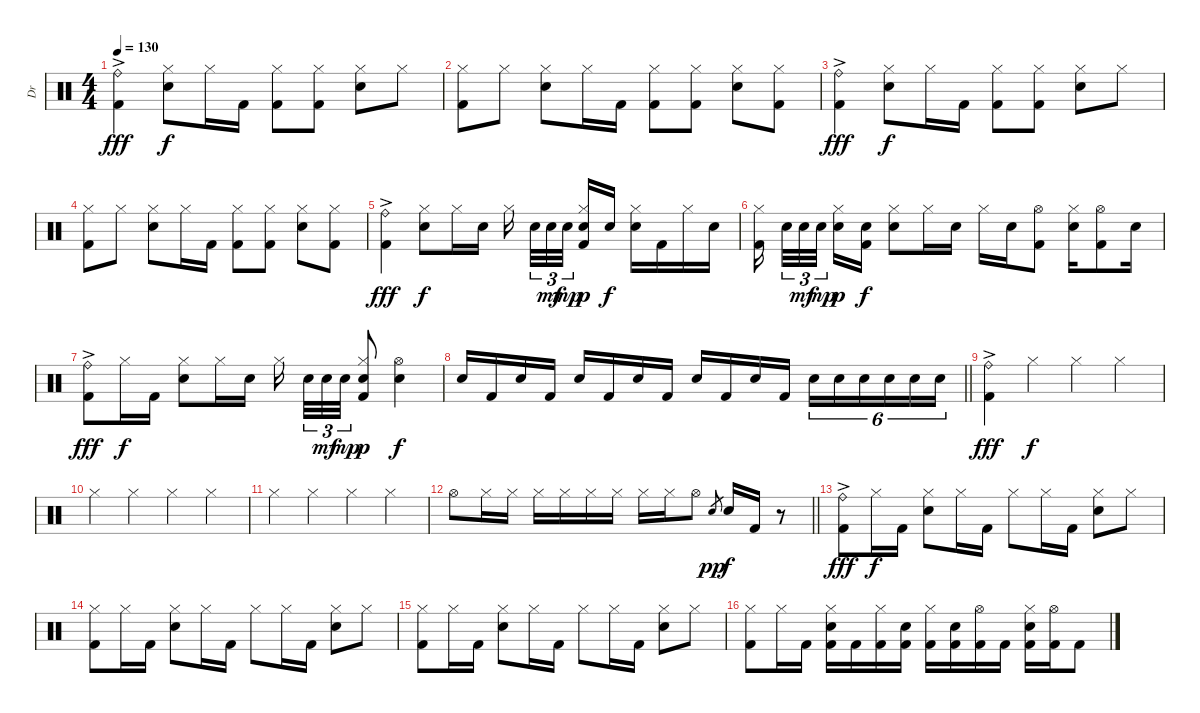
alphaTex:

\track ("Dr" "Dr") {instrument percussion}
\staff {score}
\articulation defaults
\ts (4 4)
\tempo 130
\clef neutral
\ks c
("Ride (bell)"{ac} "Kick (hit) 2"{ac}).4{dy fff} ("Hi-Hat (closed)" "Electric Snare (hit)").8{dy f} "Hi-Hat (closed)".16 "Kick (hit) 2".16 ("Hi-Hat (closed)" "Kick (hit) 2").8 ("Hi-Hat (closed)" "Kick (hit) 2").8 ("Hi-Hat (closed)" "Electric Snare (hit)").8 "Hi-Hat (closed)".8 |
("Hi-Hat (closed)" "Kick (hit) 2").8 "Hi-Hat (closed)".8 ("Hi-Hat (closed)" "Electric Snare (hit)").8 "Hi-Hat (closed)".16 "Kick (hit) 2".16 ("Hi-Hat (closed)" "Kick (hit) 2").8 ("Hi-Hat (closed)" "Kick (hit) 2").8 ("Hi-Hat (closed)" "Electric Snare (hit)").8 ("Hi-Hat (closed)" "Kick (hit) 2").8 |
("Ride (bell)"{ac} "Kick (hit) 2"{ac}).4{dy fff} ("Hi-Hat (closed)" "Electric Snare (hit)").8{dy f} "Hi-Hat (closed)".16 "Kick (hit) 2".16 ("Hi-Hat (closed)" "Kick (hit) 2").8 ("Hi-Hat (closed)" "Kick (hit) 2").8 ("Hi-Hat (closed)" "Electric Snare (hit)").8 "Hi-Hat (closed)".8 |
("Hi-Hat (closed)" "Kick (hit) 2").8 "Hi-Hat (closed)".8 ("Hi-Hat (closed)" "Electric Snare (hit)").8 "Hi-Hat (closed)".16 "Kick (hit) 2".16 ("Hi-Hat (closed)" "Kick (hit) 2").8 ("Hi-Hat (closed)" "Kick (hit) 2").8 ("Hi-Hat (closed)" "Electric Snare (hit)").8 ("Hi-Hat (closed)" "Kick (hit) 2").8 |
("Ride (bell)"{ac} "Kick (hit) 2"{ac}).4{dy fff} ("Hi-Hat (closed)" "Electric Snare (hit)").8{dy f} "Hi-Hat (closed)".16 "Electric Snare (hit)".16 "Hi-Hat (closed)".16 "Electric Snare (hit)".32{tu (3 2)} "Electric Snare (hit)".32{tu (3 2) dy mf} "Electric Snare (hit)".32{tu (3 2) dy mp} ("Hi-Hat (closed)" "Electric Snare (hit)" "Kick (hit) 2").16{dy p} "Electric Snare (hit)".16{dy f} ("Hi-Hat (closed)" "Electric Snare (hit)").16 "Kick (hit) 2".16 "Hi-Hat (closed)".16 "Electric Snare (hit)".16 |
("Hi-Hat (closed)" "Kick (hit) 2").16 "Electric Snare (hit)".32{tu (3 2)} "Electric Snare (hit)".32{tu (3 2) dy mf} "Electric Snare (hit)".32{tu (3 2) dy mp} ("Hi-Hat (closed)" "Electric Snare (hit)").16{dy p} ("Electric Snare (hit)" "Kick (hit) 2").16{dy f} ("Hi-Hat (closed)" "Electric Snare (hit)").8 "Hi-Hat (closed)".16 "Electric Snare (hit)".16 "Hi-Hat (closed)".16 "Electric Snare (hit)".16 ("Hi-Hat (open)" "Kick (hit) 2").8 ("Hi-Hat (closed)" "Electric Snare (hit)").16 ("Hi-Hat (open)" "Kick (hit) 2").8 "Electric Snare (hit)".16 |
("Ride (bell)"{ac} "Kick (hit) 2"{ac}).8{dy fff} "Hi-Hat (closed)".16{dy f} "Kick (hit) 2".16 ("Hi-Hat (closed)" "Electric Snare (hit)").8 "Hi-Hat (closed)".16 "Electric Snare (hit)".16 "Hi-Hat (closed)".16 "Electric Snare (hit)".32{tu (3 2)} "Electric Snare (hit)".32{tu (3 2) dy mf} "Electric Snare (hit)".32{tu (3 2) dy mp} ("Hi-Hat (closed)" "Electric Snare (hit)" "Kick (hit) 2").8{dy p} ("Hi-Hat (open)" "Electric Snare (hit)").4{dy f} |
\barLineRight lightlight "Electric Snare (hit)".16 "Kick (hit) 2".16 "Electric Snare (hit)".16 "Kick (hit) 2".16 "Electric Snare (hit)".16 "Kick (hit) 2".16 "Electric Snare (hit)".16 "Kick (hit) 2".16 "Electric Snare (hit)".16 "Kick (hit) 2".16 "Electric Snare (hit)".16 "Kick (hit) 2".16 "Electric Snare (hit)".16{tu (6 4)} "Electric Snare (hit)".16{tu (6 4)} "Electric Snare (hit)".16{tu (6 4)} "Electric Snare (hit)".16{tu (6 4)} "Electric Snare (hit)".16{tu (6 4)} "Electric Snare (hit)".16{tu (6 4)}
|
("Ride (bell)"{ac} "Kick (hit) 2"{ac}).4{dy fff} "Hi-Hat (closed)".4{dy f} "Hi-Hat (closed)".4 "Hi-Hat (closed)".4 |
"Hi-Hat (closed)".4 "Hi-Hat (closed)".4 "Hi-Hat (closed)".4 "Hi-Hat (closed)".4 |
"Hi-Hat (closed)".4 "Hi-Hat (closed)".4 "Hi-Hat (closed)".4 "Hi-Hat (closed)".4 |
\barLineRight lightlight "Hi-Hat (open)".8 "Hi-Hat (closed)".16 "Hi-Hat (closed)".16 "Hi-Hat (closed)".16 "Hi-Hat (closed)".16 "Hi-Hat (closed)".16 "Hi-Hat (closed)".16 "Hi-Hat (closed)".16 "Hi-Hat (closed)".16 "Hi-Hat (open)".8 "Electric Snare (hit)".8{gr dy pp} "Electric Snare (hit)".16{dy f} "Kick (hit) 2".16
r.8 |
("Ride (bell)"{ac} "Kick (hit) 2"{ac}).8{dy fff} "Hi-Hat (closed)".16{dy f} "Kick (hit) 2".16 ("Hi-Hat (closed)" "Electric Snare (hit)").8 "Hi-Hat (closed)".16 "Kick (hit) 2".16 "Hi-Hat (closed)".8 "Hi-Hat (closed)".16 "Kick (hit) 2".16 ("Hi-Hat (closed)" "Electric Snare (hit)").8 "Hi-Hat (closed)".8 |
("Hi-Hat (closed)" "Kick (hit) 2").8 "Hi-Hat (closed)".16 "Kick (hit) 2".16 ("Hi-Hat (closed)" "Electric Snare (hit)").8 "Hi-Hat (closed)".16 "Kick (hit) 2".16 "Hi-Hat (closed)".8 "Hi-Hat (closed)".16 "Kick (hit) 2".16 ("Hi-Hat (closed)" "Electric Snare (hit)").8 "Hi-Hat (closed)".8 |
("Hi-Hat (closed)" "Kick (hit) 2").8 "Hi-Hat (closed)".16 "Kick (hit) 2".16 ("Hi-Hat (closed)" "Electric Snare (hit)").8 "Hi-Hat (closed)".16 "Kick (hit) 2".16 "Hi-Hat (closed)".8 "Hi-Hat (closed)".16 "Kick (hit) 2".16 ("Hi-Hat (closed)" "Electric Snare (hit)").8 "Hi-Hat (closed)".8 |
("Hi-Hat (closed)" "Kick (hit) 2").8 "Hi-Hat (closed)".16 "Kick (hit) 2".16 ("Hi-Hat (closed)" "Electric Snare (hit)" "Kick (hit) 2").16 "Kick (hit) 2".16 ("Hi-Hat (closed)" "Kick (hit) 2").16 ("Electric Snare (hit)" "Kick (hit) 2").16 ("Hi-Hat (closed)" "Kick (hit) 2").16 ("Electric Snare (hit)" "Kick (hit) 2").16 ("Hi-Hat (open)" "Kick (hit) 2").16 "Kick (hit) 2".16 ("Hi-Hat (closed)" "Electric Snare (hit)" "Kick (hit) 2").16 ("Hi-Hat (open)" "Kick (hit) 2").16 "Kick (hit) 2".8
